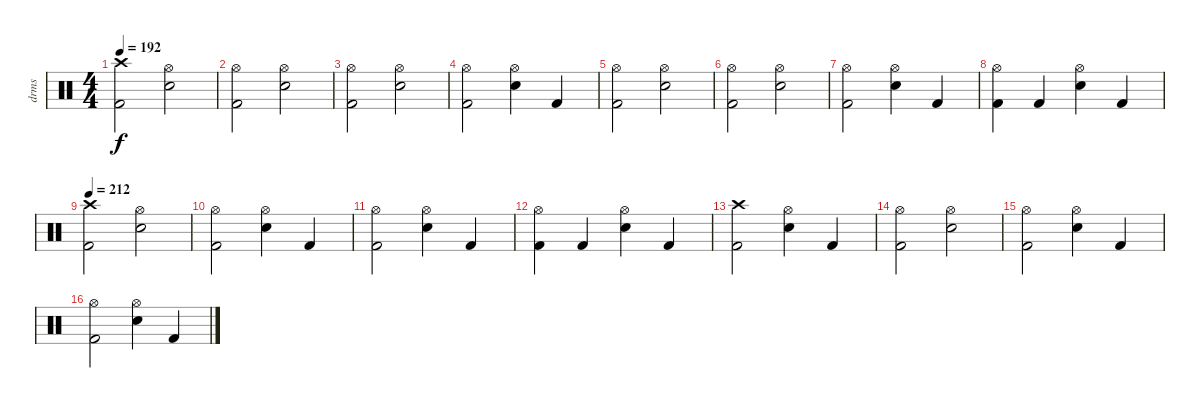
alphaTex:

\track ("drms" "drms") {instrument percussion}
\staff {score}
\articulation defaults
\ts (4 4)
\tempo 192
\clef neutral
\ks c
("Crash high (hit)" "Kick (hit) 2").2{dy f} ("Hi-Hat (open)" "Snare (hit) 2").2 |
("Hi-Hat (open)" "Kick (hit) 2").2 ("Hi-Hat (open)" "Snare (hit) 2").2 |
("Hi-Hat (open)" "Kick (hit) 2").2 ("Hi-Hat (open)" "Snare (hit) 2").2 |
("Hi-Hat (open)" "Kick (hit) 2").2 ("Hi-Hat (open)" "Snare (hit) 2").4 "Kick (hit) 2".4 |
("Hi-Hat (open)" "Kick (hit) 2").2 ("Hi-Hat (open)" "Snare (hit) 2").2 |
("Hi-Hat (open)" "Kick (hit) 2").2 ("Hi-Hat (open)" "Snare (hit) 2").2 |
("Hi-Hat (open)" "Kick (hit) 2").2 ("Hi-Hat (open)" "Snare (hit) 2").4 "Kick (hit) 2".4 |
("Hi-Hat (open)" "Kick (hit) 2").4 "Kick (hit) 2".4 ("Hi-Hat (open)" "Snare (hit) 2").4 "Kick (hit) 2".4 |
\tempo 212
("Crash high (hit)" "Kick (hit) 2").2 ("Hi-Hat (open)" "Snare (hit) 2").2 |
("Hi-Hat (open)" "Kick (hit) 2").2 ("Hi-Hat (open)" "Snare (hit) 2").4 "Kick (hit) 2".4 |
("Hi-Hat (open)" "Kick (hit) 2").2 ("Hi-Hat (open)" "Snare (hit) 2").4 "Kick (hit) 2".4 |
("Hi-Hat (open)" "Kick (hit) 2").4 "Kick (hit) 2".4 ("Hi-Hat (open)" "Snare (hit) 2").4 "Kick (hit) 2".4 |
("Crash high (hit)" "Kick (hit) 2").2 ("Hi-Hat (open)" "Snare (hit) 2").4 "Kick (hit) 2".4 |
("Hi-Hat (open)" "Kick (hit) 2").2 ("Hi-Hat (open)" "Snare (hit) 2").2 |
("Hi-Hat (open)" "Kick (hit) 2").2 ("Hi-Hat (open)" "Snare (hit) 2").4 "Kick (hit) 2".4 |
("Hi-Hat (open)" "Kick (hit) 2").2 ("Hi-Hat (open)" "Snare (hit) 2").4 "Kick (hit) 2".4
